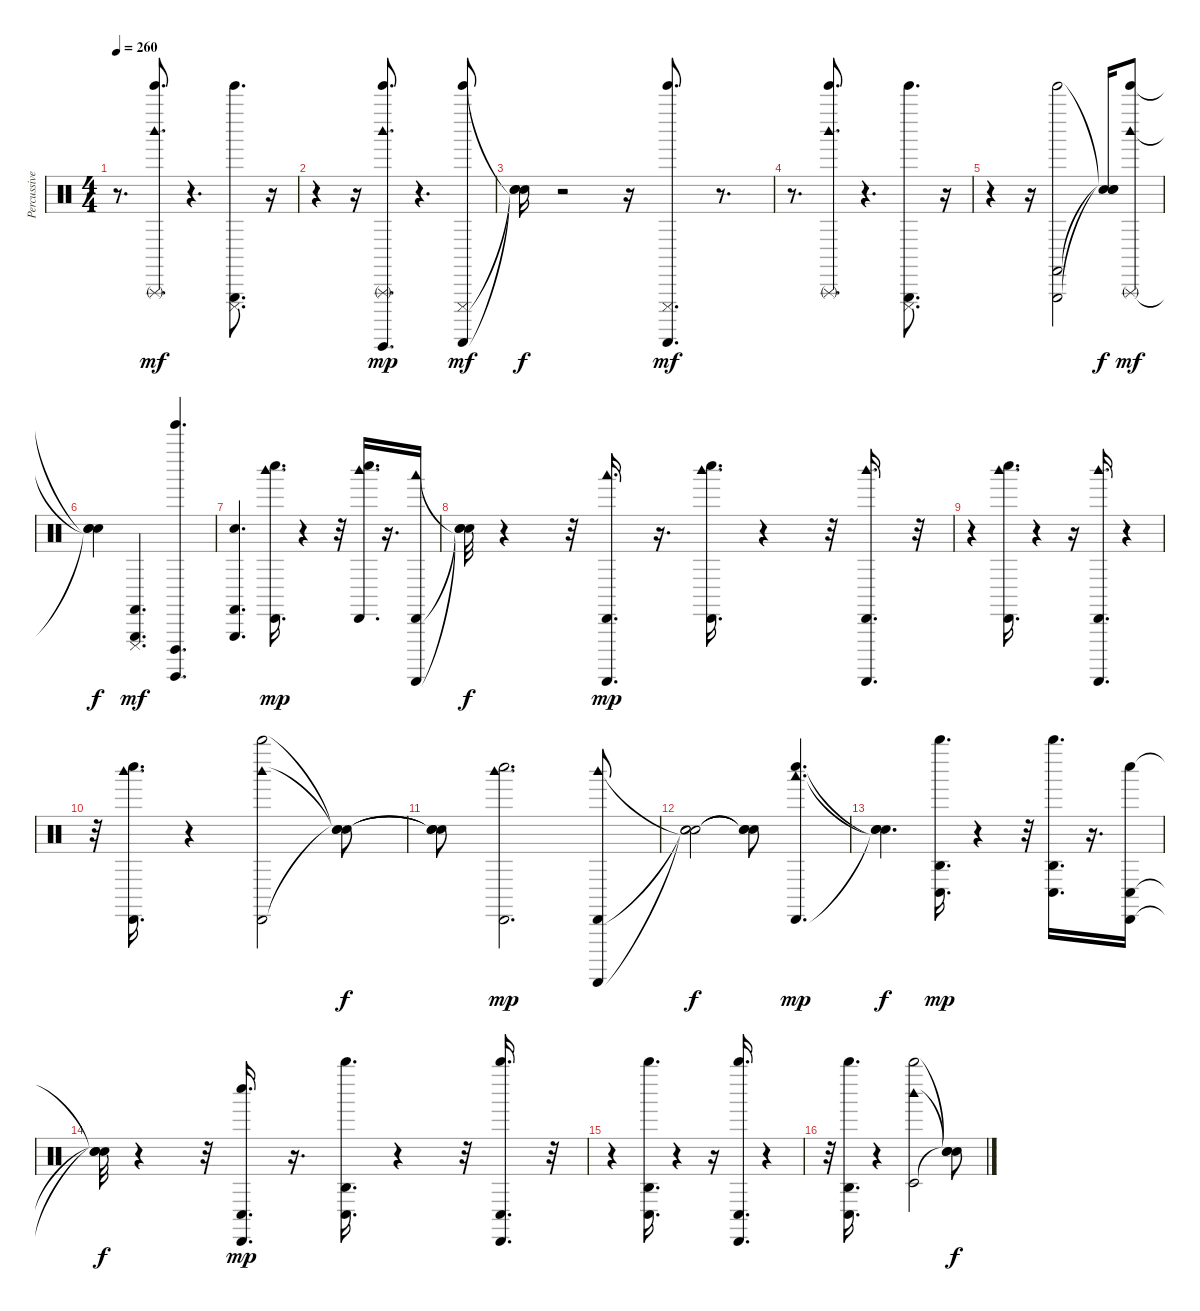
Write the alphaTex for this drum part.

\track ("Percussive Organ" "Percussive") {instrument percussion}
\staff {score}
\articulation defaults
\ts (4 4)
\tempo 260
\clef neutral
\ks c
r.8{d dy mf} ("Woodblock high (hit)" "Tinkle Bell (hit)" "Triangle (rnute)").8{d} r.4{d} ("Cuica (mute)" "Tinkle Bell (hit)" "Triangle (hit)").8{d} r.16 |
r.4 r.16 ("Guiro (hit)" "Tinkle Bell (hit)" "Triangle (rnute)" "Woodblock high (hit)").8{d dy mp} r.4{d} ("Guiro (scrap-return)" "Tinkle Bell (hit)" "Cuica (mute)").8{dy mf} |
("Snare (hit)"{t} "Snare (hit)"{t} "Snare (hit)"{t}).16{dy f} r.2 r.16 ("Guiro (scrap-return)" "Tinkle Bell (hit)" "Cuica (mute)").8{d dy mf} r.8{d} |
r.8{d} ("Woodblock high (hit)" "Tinkle Bell (hit)" "Triangle (rnute)").8{d} r.4{d} ("Cuica (mute)" "Tinkle Bell (hit)" "Triangle (hit)").8{d} r.16 |
r.4 r.16 ("Triangle (hit)" "Castanets (hit)" "Tinkle Bell (hit)").2 ("Snare (hit)"{t} "Snare (hit)"{t} "Snare (hit)"{t}).16{dy f} ("Woodblock high (hit)" "Tinkle Bell (hit)" "Triangle (rnute)").8{dy mf} |
("Snare (hit)"{t} "Snare (hit)"{t} "Snare (hit)"{t}).4{dy f} ("Cuica (mute)" "Castanets (hit)" "Triangle (hit)").4{d dy mf} ("Cuica (open)" "Surdo (hit)" "Tinkle Bell (hit)").4{d} |
("Triangle (hit)" "Snare (hit)" "Castanets (hit)").4{d} ("Cabasa (hit)" "Woodblock high (hit)" "Whistle low (hit)").16{d dy mp} r.4 r.32 ("Cabasa (hit)" "Woodblock high (hit)" "Whistle low (hit)").16{d} r.16{d} ("Cabasa (hit)" "Woodblock low (hit)" "Guiro (scrap-return)").16 |
("Snare (hit)"{t} "Snare (hit)"{t} "Snare (hit)"{t}).32{dy f} r.4 r.32 ("Cabasa (hit)" "Woodblock low (hit)" "Guiro (scrap-return)").16{d dy mp} r.16{d} ("Cabasa (hit)" "Woodblock high (hit)" "Whistle low (hit)").16{d} r.4 r.32 ("Cabasa (hit)" "Guiro (scrap-return)" "Woodblock high (hit)").16{d} r.32 |
r.4 ("Cabasa (hit)" "Woodblock high (hit)" "Whistle low (hit)").16{d} r.4 r.16 ("Cabasa (hit)" "Guiro (scrap-return)" "Woodblock high (hit)").16{d} r.4 |
r.32 ("Cabasa (hit)" "Woodblock high (hit)" "Whistle low (hit)").16{d} r.4 ("Cabasa (hit)" "Woodblock high (hit)" "Whistle high (hit)").2 ("Snare (hit)"{t} "Snare (hit)"{t} "Snare (hit)"{t}).8{dy f} |
("Snare (hit)"{t} "Snare (hit)"{t} "Snare (hit)"{t}).8 ("Cabasa (hit)" "Woodblock high (hit)" "Whistle low (hit)").2{d dy mp} ("Cabasa (hit)" "Woodblock high (hit)" "Guiro (scrap-return)").8 |
("Snare (hit)"{t} "Snare (hit)"{t} "Snare (hit)"{t}).2{dy f} ("Snare (hit)"{t} "Snare (hit)"{t} "Snare (hit)"{t}).8 ("Cabasa (hit)" "Whistle low (hit)" "Woodblock low (hit)").4{d dy mp} |
("Snare (hit)"{t} "Snare (hit)"{t} "Snare (hit)"{t}).4{d dy f} ("Conga low (hit)" "Whistle high (hit)" "Agogo high (hit)").16{d dy mp} r.4 r.32 ("Conga low (hit)" "Whistle high (hit)" "Agogo high (hit)").16{d} r.16{d} ("Conga low (hit)" "Whistle low (hit)" "Cabasa (hit)").16 |
("Snare (hit)"{t} "Snare (hit)"{t} "Snare (hit)"{t}).32{dy f} r.4 r.32 ("Conga low (hit)" "Whistle low (hit)" "Cabasa (hit)").16{d dy mp} r.16{d} ("Conga low (hit)" "Whistle high (hit)" "Agogo high (hit)").16{d} r.4 r.32 ("Conga low (hit)" "Cabasa (hit)" "Whistle high (hit)").16{d} r.32 |
r.4 ("Conga low (hit)" "Whistle high (hit)" "Agogo high (hit)").16{d} r.4 r.16 ("Conga low (hit)" "Cabasa (hit)" "Whistle high (hit)").16{d} r.4 |
r.32 ("Conga low (hit)" "Whistle high (hit)" "Agogo high (hit)").16{d} r.4 ("Timbale low (hit)" "Whistle high (hit)" "Woodblock high (hit)").2 ("Snare (hit)"{t} "Snare (hit)"{t} "Snare (hit)"{t}).8{dy f}
